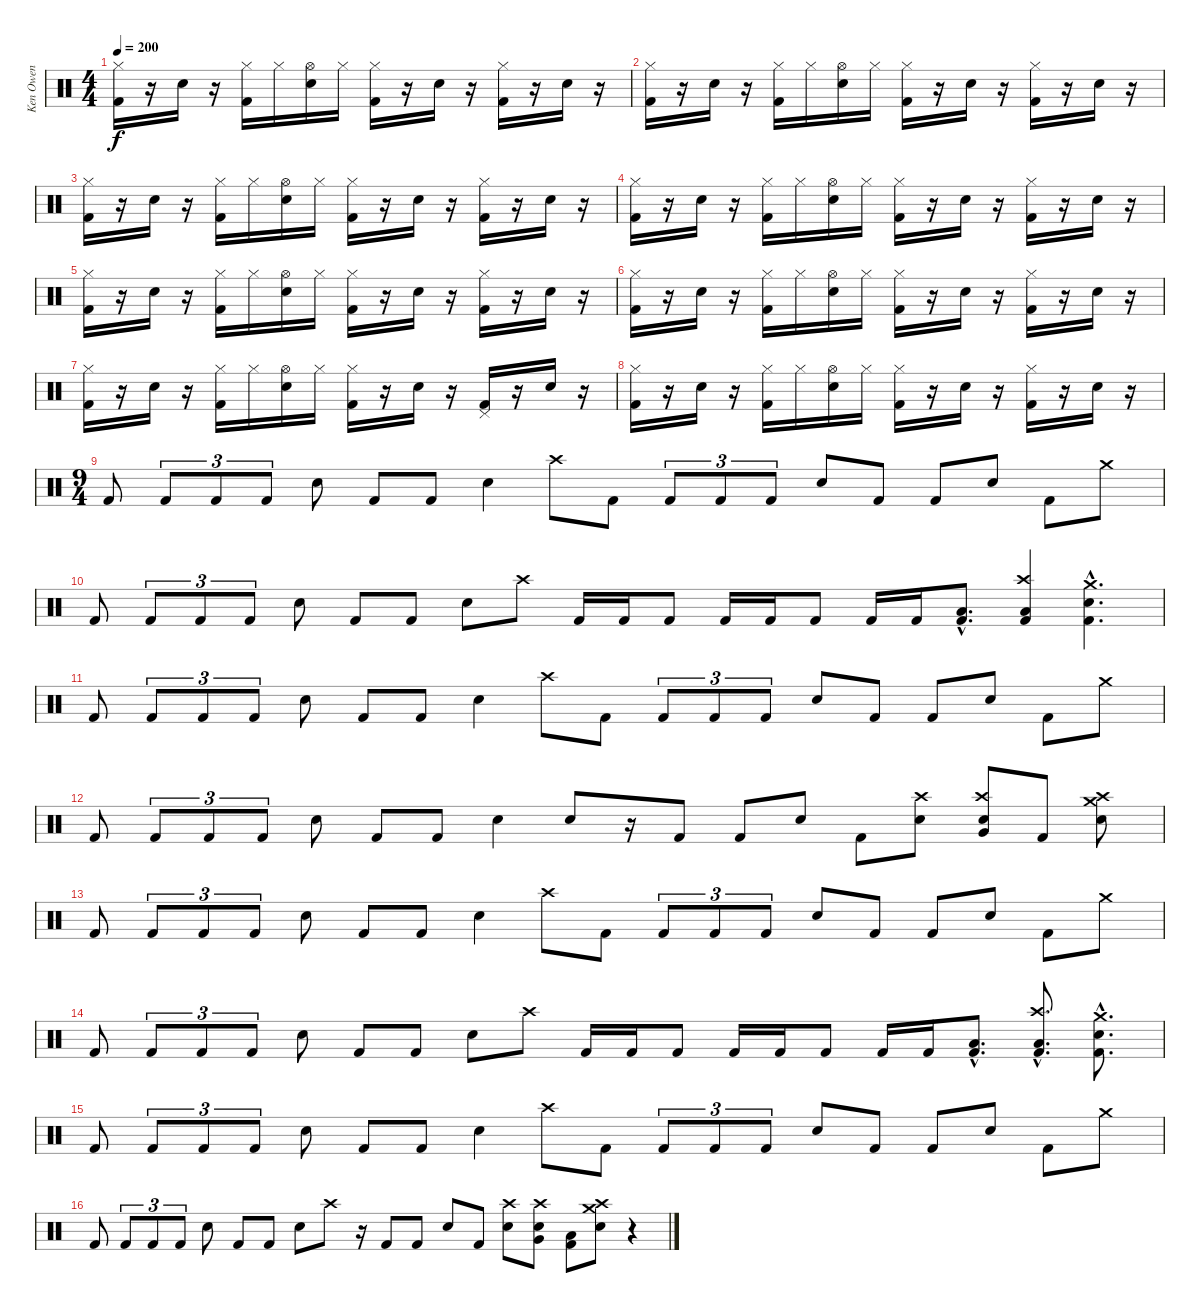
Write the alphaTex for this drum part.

\track ("Ken Owen" "Ken Owen") {instrument percussion}
\staff {score}
\articulation defaults
\ts (4 4)
\tempo 200
\clef neutral
\ks c
("Hi-Hat (closed)" "Kick (hit) 2").16{dy f} r.16 "Snare (hit) 2".16 r.16 ("Hi-Hat (closed)" "Kick (hit) 2").16 "Hi-Hat (closed)".16 ("Hi-Hat (open)" "Snare (hit) 2").16 "Hi-Hat (closed)".16 ("Hi-Hat (closed)" "Kick (hit) 2").16 r.16 "Snare (hit) 2".16 r.16 ("Hi-Hat (closed)" "Kick (hit) 2").16 r.16 "Snare (hit) 2".16 r.16 |
("Hi-Hat (closed)" "Kick (hit) 2").16 r.16 "Snare (hit) 2".16 r.16 ("Hi-Hat (closed)" "Kick (hit) 2").16 "Hi-Hat (closed)".16 ("Hi-Hat (open)" "Snare (hit) 2").16 "Hi-Hat (closed)".16 ("Hi-Hat (closed)" "Kick (hit) 2").16 r.16 "Snare (hit) 2".16 r.16 ("Hi-Hat (closed)" "Kick (hit) 2").16 r.16 "Snare (hit) 2".16 r.16 |
("Hi-Hat (closed)" "Kick (hit) 2").16 r.16 "Snare (hit) 2".16 r.16 ("Hi-Hat (closed)" "Kick (hit) 2").16 "Hi-Hat (closed)".16 ("Hi-Hat (open)" "Snare (hit) 2").16 "Hi-Hat (closed)".16 ("Hi-Hat (closed)" "Kick (hit) 2").16 r.16 "Snare (hit) 2".16 r.16 ("Hi-Hat (closed)" "Kick (hit) 2").16 r.16 "Snare (hit) 2".16 r.16 |
("Hi-Hat (closed)" "Kick (hit) 2").16 r.16 "Snare (hit) 2".16 r.16 ("Hi-Hat (closed)" "Kick (hit) 2").16 "Hi-Hat (closed)".16 ("Hi-Hat (open)" "Snare (hit) 2").16 "Hi-Hat (closed)".16 ("Hi-Hat (closed)" "Kick (hit) 2").16 r.16 "Snare (hit) 2".16 r.16 ("Hi-Hat (closed)" "Kick (hit) 2").16 r.16 "Snare (hit) 2".16 r.16 |
("Hi-Hat (closed)" "Kick (hit) 2").16 r.16 "Snare (hit) 2".16 r.16 ("Hi-Hat (closed)" "Kick (hit) 2").16 "Hi-Hat (closed)".16 ("Hi-Hat (open)" "Snare (hit) 2").16 "Hi-Hat (closed)".16 ("Hi-Hat (closed)" "Kick (hit) 2").16 r.16 "Snare (hit) 2".16 r.16 ("Hi-Hat (closed)" "Kick (hit) 2").16 r.16 "Snare (hit) 2".16 r.16 |
("Hi-Hat (closed)" "Kick (hit) 2").16 r.16 "Snare (hit) 2".16 r.16 ("Hi-Hat (closed)" "Kick (hit) 2").16 "Hi-Hat (closed)".16 ("Hi-Hat (open)" "Snare (hit) 2").16 "Hi-Hat (closed)".16 ("Hi-Hat (closed)" "Kick (hit) 2").16 r.16 "Snare (hit) 2".16 r.16 ("Hi-Hat (closed)" "Kick (hit) 2").16 r.16 "Snare (hit) 2".16 r.16 |
("Hi-Hat (closed)" "Kick (hit) 2").16 r.16 "Snare (hit) 2".16 r.16 ("Hi-Hat (closed)" "Kick (hit) 2").16 "Hi-Hat (closed)".16 ("Hi-Hat (open)" "Snare (hit) 2").16 "Hi-Hat (closed)".16 ("Hi-Hat (closed)" "Kick (hit) 2").16 r.16 "Snare (hit) 2".16 r.16 ("Pedal Hi-Hat (hit)" "Kick (hit) 2").16 r.16 "Snare (hit) 2".16 r.16 |
("Hi-Hat (closed)" "Kick (hit) 2").16 r.16 "Snare (hit) 2".16 r.16 ("Hi-Hat (closed)" "Kick (hit) 2").16 "Hi-Hat (closed)".16 ("Hi-Hat (open)" "Snare (hit) 2").16 "Hi-Hat (closed)".16 ("Hi-Hat (closed)" "Kick (hit) 2").16 r.16 "Snare (hit) 2".16 r.16 ("Hi-Hat (closed)" "Kick (hit) 2").16 r.16 "Snare (hit) 2".16 r.16 |
\ts (9 4)
"Kick (hit) 2".8 "Kick (hit) 2".8{tu (3 2)} "Kick (hit) 2".8{tu (3 2)} "Kick (hit) 2".8{tu (3 2)} "Snare (hit) 2".8 "Kick (hit) 2".8 "Kick (hit) 2".8 "Snare (hit) 2".4 "Crash high (hit)".8 "Kick (hit) 2".8 "Kick (hit) 2".8{tu (3 2)} "Kick (hit) 2".8{tu (3 2)} "Kick (hit) 2".8{tu (3 2)} "Snare (hit) 2".8 "Kick (hit) 2".8 "Kick (hit) 2".8 "Snare (hit) 2".8 "Kick (hit) 2".8 "Crash medium (hit)".8 |
"Kick (hit) 2".8 "Kick (hit) 2".8{tu (3 2)} "Kick (hit) 2".8{tu (3 2)} "Kick (hit) 2".8{tu (3 2)} "Snare (hit) 2".8 "Kick (hit) 2".8 "Kick (hit) 2".8 "Snare (hit) 2".8 "Crash high (hit)".8 "Kick (hit) 2".16 "Kick (hit) 2".16 "Kick (hit) 2".8 "Kick (hit) 2".16 "Kick (hit) 2".16 "Kick (hit) 2".8 "Kick (hit) 2".16 "Kick (hit) 2".16 ("Kick (hit) 2"{hac} "Low Floor Tom (hit)"{hac}).8{d} ("Crash high (hit)" "Kick (hit) 2" "Low Floor Tom (hit)").4 ("Crash medium (hit)"{hac} "Kick (hit) 2"{hac} "Snare (hit) 2"{hac}).4{d} |
"Kick (hit) 2".8 "Kick (hit) 2".8{tu (3 2)} "Kick (hit) 2".8{tu (3 2)} "Kick (hit) 2".8{tu (3 2)} "Snare (hit) 2".8 "Kick (hit) 2".8 "Kick (hit) 2".8 "Snare (hit) 2".4 "Crash high (hit)".8 "Kick (hit) 2".8 "Kick (hit) 2".8{tu (3 2)} "Kick (hit) 2".8{tu (3 2)} "Kick (hit) 2".8{tu (3 2)} "Snare (hit) 2".8 "Kick (hit) 2".8 "Kick (hit) 2".8 "Snare (hit) 2".8 "Kick (hit) 2".8 "Crash medium (hit)".8 |
"Kick (hit) 2".8 "Kick (hit) 2".8{tu (3 2)} "Kick (hit) 2".8{tu (3 2)} "Kick (hit) 2".8{tu (3 2)} "Snare (hit) 2".8 "Kick (hit) 2".8 "Kick (hit) 2".8 "Snare (hit) 2".4 "Snare (hit) 2".8 r.16 "Kick (hit) 2".8 "Kick (hit) 2".8 "Snare (hit) 2".8 "Kick (hit) 2".8 ("Crash high (hit)" "Snare (hit) 2").8 ("Crash high (hit)" "Very Low Tom (hit)" "Snare (hit) 2").8 "Kick (hit) 2".8 ("Crash high (hit)" "Snare (hit) 2" "Crash medium (hit)").8 |
"Kick (hit) 2".8 "Kick (hit) 2".8{tu (3 2)} "Kick (hit) 2".8{tu (3 2)} "Kick (hit) 2".8{tu (3 2)} "Snare (hit) 2".8 "Kick (hit) 2".8 "Kick (hit) 2".8 "Snare (hit) 2".4 "Crash high (hit)".8 "Kick (hit) 2".8 "Kick (hit) 2".8{tu (3 2)} "Kick (hit) 2".8{tu (3 2)} "Kick (hit) 2".8{tu (3 2)} "Snare (hit) 2".8 "Kick (hit) 2".8 "Kick (hit) 2".8 "Snare (hit) 2".8 "Kick (hit) 2".8 "Crash medium (hit)".8 |
"Kick (hit) 2".8 "Kick (hit) 2".8{tu (3 2)} "Kick (hit) 2".8{tu (3 2)} "Kick (hit) 2".8{tu (3 2)} "Snare (hit) 2".8 "Kick (hit) 2".8 "Kick (hit) 2".8 "Snare (hit) 2".8 "Crash high (hit)".8 "Kick (hit) 2".16 "Kick (hit) 2".16 "Kick (hit) 2".8 "Kick (hit) 2".16 "Kick (hit) 2".16 "Kick (hit) 2".8 "Kick (hit) 2".16 "Kick (hit) 2".16 ("Kick (hit) 2"{hac} "Low Floor Tom (hit)"{hac}).8{d} ("Crash high (hit)"{hac} "Kick (hit) 2"{hac} "Low Floor Tom (hit)"{hac}).8{d} ("Crash medium (hit)"{hac} "Kick (hit) 2"{hac} "Snare (hit) 2"{hac}).8{d} |
"Kick (hit) 2".8 "Kick (hit) 2".8{tu (3 2)} "Kick (hit) 2".8{tu (3 2)} "Kick (hit) 2".8{tu (3 2)} "Snare (hit) 2".8 "Kick (hit) 2".8 "Kick (hit) 2".8 "Snare (hit) 2".4 "Crash high (hit)".8 "Kick (hit) 2".8 "Kick (hit) 2".8{tu (3 2)} "Kick (hit) 2".8{tu (3 2)} "Kick (hit) 2".8{tu (3 2)} "Snare (hit) 2".8 "Kick (hit) 2".8 "Kick (hit) 2".8 "Snare (hit) 2".8 "Kick (hit) 2".8 "Crash medium (hit)".8 |
"Kick (hit) 2".8 "Kick (hit) 2".8{tu (3 2)} "Kick (hit) 2".8{tu (3 2)} "Kick (hit) 2".8{tu (3 2)} "Snare (hit) 2".8 "Kick (hit) 2".8 "Kick (hit) 2".8 "Snare (hit) 2".8 "Crash high (hit)".8 r.16 "Kick (hit) 2".8 "Kick (hit) 2".8 "Snare (hit) 2".8 "Kick (hit) 2".8 ("Crash high (hit)" "Snare (hit) 2").8 ("Crash high (hit)" "Very Low Tom (hit)" "Snare (hit) 2").8 ("Kick (hit) 2" "Low Floor Tom (hit)").8 ("Crash high (hit)" "Snare (hit) 2" "Crash medium (hit)").8 r.4
